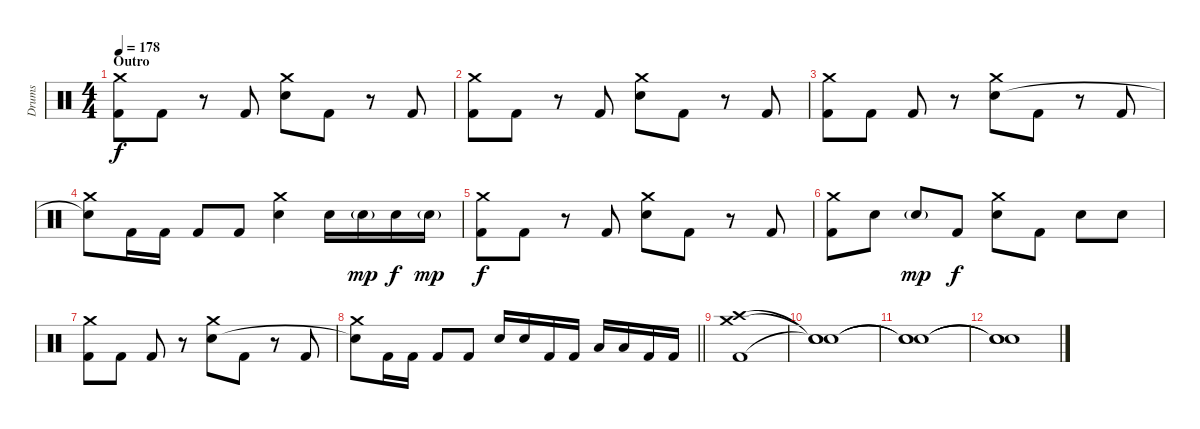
\track ("Drums" "Drums") {instrument percussion}
\staff {score}
\articulation defaults
\ts (4 4)
\section ("" "Outro")
\tempo 178
\clef neutral
\ks c
("Crash medium (hit)" "Kick (hit) 2").8{dy f} "Kick (hit) 2".8 r.8 "Kick (hit) 2".8 ("Crash medium (hit)" "Snare (hit) 2").8 "Kick (hit) 2".8 r.8 "Kick (hit) 2".8 |
("Crash medium (hit)" "Kick (hit) 2").8 "Kick (hit) 2".8 r.8 "Kick (hit) 2".8 ("Crash medium (hit)" "Snare (hit) 2").8 "Kick (hit) 2".8 r.8 "Kick (hit) 2".8 |
("Crash medium (hit)" "Kick (hit) 2").8 "Kick (hit) 2".8 "Kick (hit) 2".8 r.8 ("Crash medium (hit)" "Snare (hit) 2").8 "Kick (hit) 2".8 r.8 "Kick (hit) 2".8 |
("Crash medium (hit)" "Snare (hit)"{t}).8 "Kick (hit) 2".16 "Kick (hit) 2".16 "Kick (hit) 2".8 "Kick (hit) 2".8 ("Crash medium (hit)" "Snare (hit) 2").4 "Snare (hit) 2".16 "Snare (hit) 2"{g}.16{dy mp} "Snare (hit) 2".16{dy f} "Snare (hit) 2"{g}.16{dy mp} |
("Crash medium (hit)" "Kick (hit) 2").8{dy f} "Kick (hit) 2".8 r.8 "Kick (hit) 2".8 ("Crash medium (hit)" "Snare (hit) 2").8 "Kick (hit) 2".8 r.8 "Kick (hit) 2".8 |
("Crash medium (hit)" "Kick (hit) 2").8 "Snare (hit) 2".8 "Snare (hit) 2"{g}.8{dy mp} "Kick (hit) 2".8{dy f} ("Crash medium (hit)" "Snare (hit) 2").8 "Kick (hit) 2".8 "Snare (hit) 2".8 "Snare (hit) 2".8 |
("Crash medium (hit)" "Kick (hit) 2").8 "Kick (hit) 2".8 "Kick (hit) 2".8 r.8 ("Crash medium (hit)" "Snare (hit) 2").8 "Kick (hit) 2".8 r.8 "Kick (hit) 2".8 |
\barLineRight lightlight
("Crash medium (hit)" "Snare (hit)"{t}).8 "Kick (hit) 2".16 "Kick (hit) 2".16 "Kick (hit) 2".8 "Kick (hit) 2".8 "Snare (hit) 2".16 "Snare (hit) 2".16 "Kick (hit) 2".16 "Kick (hit) 2".16 "Low Tom (hit)".16 "Low Tom (hit)".16 "Kick (hit) 2".16 "Kick (hit) 2".16 |
("Crash high (hit)" "Crash medium (hit)" "Kick (hit) 2").1 |
("Snare (hit)"{t} "Snare (hit)"{t} "Snare (hit)"{t}).1 |
("Snare (hit)"{t} "Snare (hit)"{t} "Snare (hit)"{t}).1 |
("Snare (hit)"{t} "Snare (hit)"{t} "Snare (hit)"{t}).1
